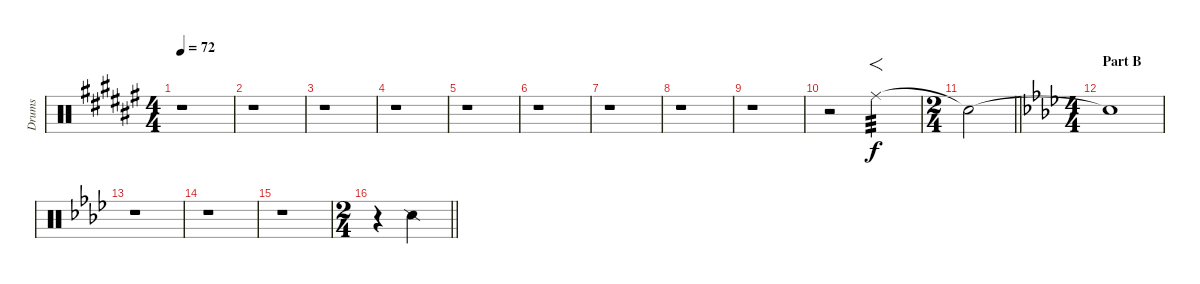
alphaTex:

\track ("Drums" "Drums") {instrument percussion}
\staff {score}
\articulation defaults
\ts (4 4)
\tempo 72
\clef neutral
\ks f#
r.1{dy f} |
r.1 |
r.1 |
r.1 |
r.1 |
r.1 |
r.1 |
r.1 |
r.1 |
r.2 "Ride (middle)".2{f tp 3} |
\ts (2 4)
\barLineRight lightlight "Snare (hit)"{t}.2
|
\ts (4 4)
\section ("" "Part B")
\ks ab "Snare (hit)"{t}.1
|
r.1 |
r.1 |
r.1 |
\ts (2 4)
\barLineRight lightlight
r.4 "Snare (side stick) 2".4
